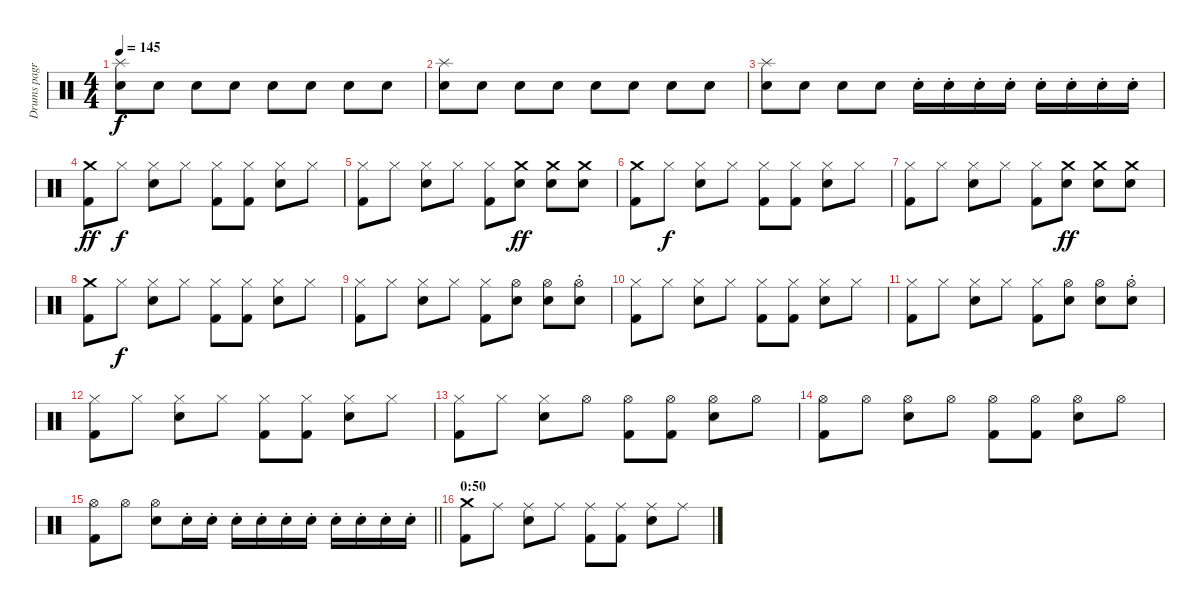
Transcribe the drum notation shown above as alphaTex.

\track ("Drums pagr" "Drums pagr") {instrument percussion}
\staff {score}
\articulation defaults
\ts (4 4)
\tempo 145
\clef neutral
\ks c
("Splash (hit)" "Snare (hit) 2").8{dy f} "Snare (hit) 2".8 "Snare (hit) 2".8 "Snare (hit) 2".8 "Snare (hit) 2".8 "Snare (hit) 2".8 "Snare (hit) 2".8 "Snare (hit) 2".8 |
("Splash (hit)" "Snare (hit) 2").8 "Snare (hit) 2".8 "Snare (hit) 2".8 "Snare (hit) 2".8 "Snare (hit) 2".8 "Snare (hit) 2".8 "Snare (hit) 2".8 "Snare (hit) 2".8 |
("Splash (hit)" "Snare (hit) 2").8 "Snare (hit) 2".8 "Snare (hit) 2".8 "Snare (hit) 2".8 "Snare (hit) 2"{st}.16 "Snare (hit) 2"{st}.16 "Snare (hit) 2"{st}.16 "Snare (hit) 2"{st}.16 "Snare (hit) 2"{st}.16 "Snare (hit) 2"{st}.16 "Snare (hit) 2"{st}.16 "Snare (hit) 2"{st}.16 |
("Crash medium (hit)" "Kick (hit) 2").8{dy ff} "Hi-Hat (closed)".8{dy f} ("Hi-Hat (closed)" "Snare (hit) 2").8 "Hi-Hat (closed)".8 ("Hi-Hat (closed)" "Kick (hit) 2").8 ("Hi-Hat (closed)" "Kick (hit) 2").8 ("Hi-Hat (closed)" "Snare (hit) 2").8 "Hi-Hat (closed)".8 |
("Hi-Hat (closed)" "Kick (hit) 2").8 "Hi-Hat (closed)".8 ("Hi-Hat (closed)" "Snare (hit) 2").8 "Hi-Hat (closed)".8 ("Hi-Hat (closed)" "Kick (hit) 2").8 ("Crash medium (hit)" "Snare (hit) 2").8{dy ff} ("Crash medium (hit)" "Snare (hit) 2").8 ("Crash medium (hit)" "Snare (hit) 2").8 |
("Crash medium (hit)" "Kick (hit) 2").8 "Hi-Hat (closed)".8{dy f} ("Hi-Hat (closed)" "Snare (hit) 2").8 "Hi-Hat (closed)".8 ("Hi-Hat (closed)" "Kick (hit) 2").8 ("Hi-Hat (closed)" "Kick (hit) 2").8 ("Hi-Hat (closed)" "Snare (hit) 2").8 "Hi-Hat (closed)".8 |
("Hi-Hat (closed)" "Kick (hit) 2").8 "Hi-Hat (closed)".8 ("Hi-Hat (closed)" "Snare (hit) 2").8 "Hi-Hat (closed)".8 ("Hi-Hat (closed)" "Kick (hit) 2").8 ("Crash medium (hit)" "Snare (hit) 2").8{dy ff} ("Crash medium (hit)" "Snare (hit) 2").8 ("Crash medium (hit)" "Snare (hit) 2").8 |
("Crash medium (hit)" "Kick (hit) 2").8 "Hi-Hat (closed)".8{dy f} ("Hi-Hat (closed)" "Snare (hit) 2").8 "Hi-Hat (closed)".8 ("Hi-Hat (closed)" "Kick (hit) 2").8 ("Hi-Hat (closed)" "Kick (hit) 2").8 ("Hi-Hat (closed)" "Snare (hit) 2").8 "Hi-Hat (closed)".8 |
("Hi-Hat (closed)" "Kick (hit) 2").8 "Hi-Hat (closed)".8 ("Hi-Hat (closed)" "Snare (hit) 2").8 "Hi-Hat (closed)".8 ("Hi-Hat (closed)" "Kick (hit) 2").8 ("Hi-Hat (open)" "Snare (hit) 2").8 ("Hi-Hat (open)" "Snare (hit) 2").8 ("Hi-Hat (open)"{st} "Snare (hit) 2").8 |
("Hi-Hat (closed)" "Kick (hit) 2").8 "Hi-Hat (closed)".8 ("Hi-Hat (closed)" "Snare (hit) 2").8 "Hi-Hat (closed)".8 ("Hi-Hat (closed)" "Kick (hit) 2").8 ("Hi-Hat (closed)" "Kick (hit) 2").8 ("Hi-Hat (closed)" "Snare (hit) 2").8 "Hi-Hat (closed)".8 |
("Hi-Hat (closed)" "Kick (hit) 2").8 "Hi-Hat (closed)".8 ("Hi-Hat (closed)" "Snare (hit) 2").8 "Hi-Hat (closed)".8 ("Hi-Hat (closed)" "Kick (hit) 2").8 ("Hi-Hat (open)" "Snare (hit) 2").8 ("Hi-Hat (open)" "Snare (hit) 2").8 ("Hi-Hat (open)"{st} "Snare (hit) 2").8 |
("Hi-Hat (closed)" "Kick (hit) 2").8 "Hi-Hat (closed)".8 ("Hi-Hat (closed)" "Snare (hit) 2").8 "Hi-Hat (closed)".8 ("Hi-Hat (closed)" "Kick (hit) 2").8 ("Hi-Hat (closed)" "Kick (hit) 2").8 ("Hi-Hat (closed)" "Snare (hit) 2").8 "Hi-Hat (closed)".8 |
("Hi-Hat (closed)" "Kick (hit) 2").8 "Hi-Hat (closed)".8 ("Hi-Hat (closed)" "Snare (hit) 2").8 "Hi-Hat (open)".8 ("Hi-Hat (open)" "Kick (hit) 2").8 ("Hi-Hat (open)" "Kick (hit) 2").8 ("Hi-Hat (open)" "Snare (hit) 2").8 "Hi-Hat (open)".8 |
("Hi-Hat (open)" "Kick (hit) 2").8 "Hi-Hat (open)".8 ("Hi-Hat (open)" "Snare (hit) 2").8 "Hi-Hat (open)".8 ("Hi-Hat (open)" "Kick (hit) 2").8 ("Hi-Hat (open)" "Kick (hit) 2").8 ("Hi-Hat (open)" "Snare (hit) 2").8 "Hi-Hat (open)".8 |
\barLineRight lightlight
("Hi-Hat (open)" "Kick (hit) 2").8 "Hi-Hat (open)".8 ("Hi-Hat (open)" "Snare (hit) 2").8 "Snare (hit) 2"{st}.16 "Snare (hit) 2"{st}.16 "Snare (hit) 2"{st}.16 "Snare (hit) 2"{st}.16 "Snare (hit) 2"{st}.16 "Snare (hit) 2"{st}.16 "Snare (hit) 2"{st}.16 "Snare (hit) 2"{st}.16 "Snare (hit) 2"{st}.16 "Snare (hit) 2"{st}.16 |
\section ("" "0:50")
("Crash medium (hit)" "Kick (hit) 2").8 "Ride (middle)".8 ("Ride (middle)" "Snare (hit) 2").8 "Ride (middle)".8 ("Ride (middle)" "Kick (hit) 2").8 ("Ride (middle)" "Kick (hit) 2").8 ("Ride (middle)" "Snare (hit) 2").8 "Ride (middle)".8
